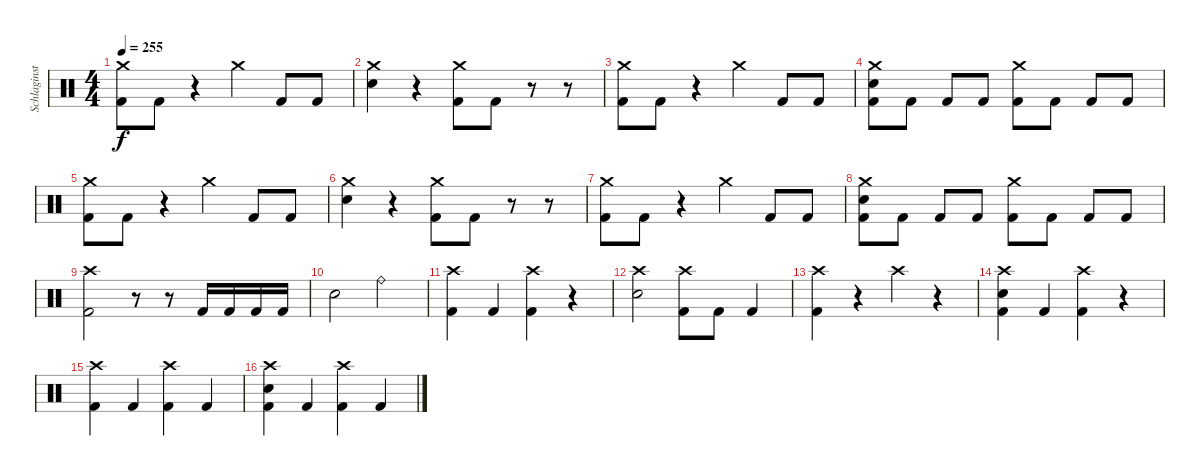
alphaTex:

\track ("Schlaginstrumente - Auswahl" "Schlaginst") {instrument percussion}
\staff {score}
\articulation defaults
\ts (4 4)
\tempo 255
\clef neutral
\ks c
("Crash medium (hit)" "Kick (hit) 2").8{dy f} "Kick (hit) 2".8 r.4 "Crash medium (hit)".4 "Kick (hit) 2".8 "Kick (hit) 2".8 |
("Crash medium (hit)" "Electric Snare (hit)").4 r.4 ("Crash medium (hit)" "Kick (hit) 2").8 "Kick (hit) 2".8 r.8 r.8 |
("Crash medium (hit)" "Kick (hit) 2").8 "Kick (hit) 2".8 r.4 "Crash medium (hit)".4 "Kick (hit) 2".8 "Kick (hit) 2".8 |
("Crash medium (hit)" "Electric Snare (hit)" "Kick (hit) 2").8 "Kick (hit) 2".8 "Kick (hit) 2".8 "Kick (hit) 2".8 ("Crash medium (hit)" "Kick (hit) 2").8 "Kick (hit) 2".8 "Kick (hit) 2".8 "Kick (hit) 2".8 |
("Crash medium (hit)" "Kick (hit) 2").8 "Kick (hit) 2".8 r.4 "Crash medium (hit)".4 "Kick (hit) 2".8 "Kick (hit) 2".8 |
("Crash medium (hit)" "Electric Snare (hit)").4 r.4 ("Crash medium (hit)" "Kick (hit) 2").8 "Kick (hit) 2".8 r.8 r.8 |
("Crash medium (hit)" "Kick (hit) 2").8 "Kick (hit) 2".8 r.4 "Crash medium (hit)".4 "Kick (hit) 2".8 "Kick (hit) 2".8 |
("Crash medium (hit)" "Electric Snare (hit)" "Kick (hit) 2").8 "Kick (hit) 2".8 "Kick (hit) 2".8 "Kick (hit) 2".8 ("Crash medium (hit)" "Kick (hit) 2").8 "Kick (hit) 2".8 "Kick (hit) 2".8 "Kick (hit) 2".8 |
("Crash high (hit)" "Kick (hit) 2").2 r.8 r.8 "Kick (hit) 2".16 "Kick (hit) 2".16 "Kick (hit) 2".16 "Kick (hit) 2".16 |
"Electric Snare (hit)".2 "Ride (bell)".2 |
("Crash high (hit)" "Kick (hit) 2").4 "Kick (hit) 2".4 ("Crash high (hit)" "Kick (hit) 2").4 r.4 |
("Crash high (hit)" "Electric Snare (hit)").2 ("Crash high (hit)" "Kick (hit) 2").8 "Kick (hit) 2".8 "Kick (hit) 2".4 |
("Crash high (hit)" "Kick (hit) 2").4 r.4 "Crash high (hit)".4 r.4 |
("Crash high (hit)" "Electric Snare (hit)" "Kick (hit) 2").4 "Kick (hit) 2".4 ("Crash high (hit)" "Kick (hit) 2").4 r.4 |
("Crash high (hit)" "Kick (hit) 2").4 "Kick (hit) 2".4 ("Crash high (hit)" "Kick (hit) 2").4 "Kick (hit) 2".4 |
("Crash high (hit)" "Electric Snare (hit)" "Kick (hit) 2").4 "Kick (hit) 2".4 ("Crash high (hit)" "Kick (hit) 2").4 "Kick (hit) 2".4
